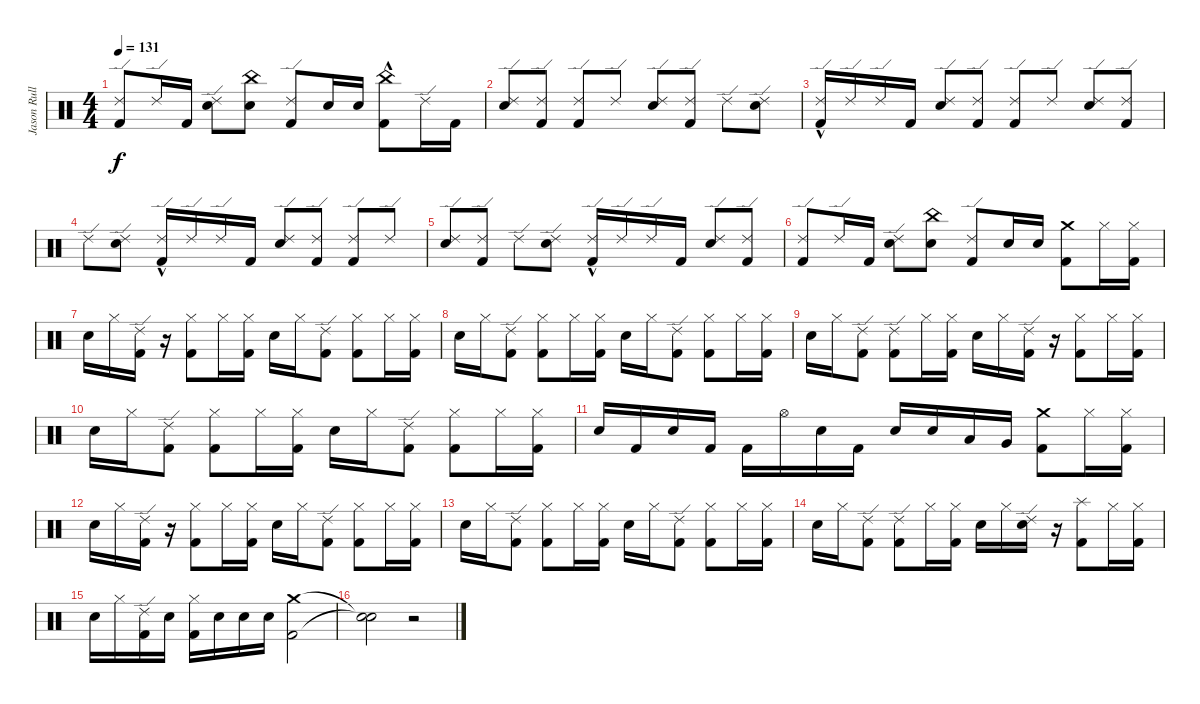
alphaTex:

\track ("Jason Rullo (Drums)" "Jason Rull") {instrument percussion}
\staff {score}
\articulation defaults
\ts (4 4)
\tempo 131
\clef neutral
\ks c
("Kick (hit) 2" "Ride (edge) 2").8{dy f} "Ride (edge) 2".16 "Kick (hit) 2".16 ("Electric Snare (hit)" "Ride (edge) 2").8 ("China (hit)" "Electric Snare (hit)").8 ("Ride (edge) 2" "Kick (hit) 2").8 "Electric Snare (hit)".16 "Electric Snare (hit)".16 ("Kick (hit) 2"{hac} "China (hit)").8 "Ride (edge) 2".16 "Kick (hit) 2".16 |
("Electric Snare (hit)" "Ride (edge) 2").8 ("Kick (hit) 2" "Ride (edge) 2").8 ("Kick (hit) 2" "Ride (edge) 2").8 "Ride (edge) 2".8 ("Electric Snare (hit)" "Ride (edge) 2").8 ("Kick (hit) 2" "Ride (edge) 2").8 "Ride (edge) 2".8 ("Electric Snare (hit)" "Ride (edge) 2").8 |
("Ride (edge) 2" "Kick (hit) 2"{hac}).16 "Ride (edge) 2".16 "Ride (edge) 2".16 "Kick (hit) 2".16 ("Electric Snare (hit)" "Ride (edge) 2").8 ("Kick (hit) 2" "Ride (edge) 2").8 ("Kick (hit) 2" "Ride (edge) 2").8 "Ride (edge) 2".8 ("Electric Snare (hit)" "Ride (edge) 2").8 ("Kick (hit) 2" "Ride (edge) 2").8 |
"Ride (edge) 2".8 ("Electric Snare (hit)" "Ride (edge) 2").8 ("Ride (edge) 2" "Kick (hit) 2"{hac}).16 "Ride (edge) 2".16 "Ride (edge) 2".16 "Kick (hit) 2".16 ("Electric Snare (hit)" "Ride (edge) 2").8 ("Kick (hit) 2" "Ride (edge) 2").8 ("Kick (hit) 2" "Ride (edge) 2").8 "Ride (edge) 2".8 |
("Electric Snare (hit)" "Ride (edge) 2").8 ("Kick (hit) 2" "Ride (edge) 2").8 "Ride (edge) 2".8 ("Electric Snare (hit)" "Ride (edge) 2").8 ("Ride (edge) 2" "Kick (hit) 2"{hac}).16 "Ride (edge) 2".16 "Ride (edge) 2".16 "Kick (hit) 2".16 ("Electric Snare (hit)" "Ride (edge) 2").8 ("Kick (hit) 2" "Ride (edge) 2").8 |
("Kick (hit) 2" "Ride (edge) 2").8 "Ride (edge) 2".16 "Kick (hit) 2".16 ("Electric Snare (hit)" "Ride (edge) 2").8 ("China (hit)" "Electric Snare (hit)").8 ("Ride (edge) 2" "Kick (hit) 2").8 "Electric Snare (hit)".16 "Electric Snare (hit)".16 ("Crash medium (hit)" "Kick (hit) 2").8 "Hi-Hat (closed)".16 ("Hi-Hat (closed)" "Kick (hit) 2").16 |
"Electric Snare (hit)".16 "Hi-Hat (closed)".16 ("Ride (edge) 2" "Kick (hit) 2").16 r.16 ("Hi-Hat (closed)" "Kick (hit) 2").8 "Hi-Hat (closed)".16 ("Hi-Hat (closed)" "Kick (hit) 2").16 "Electric Snare (hit)".16 "Hi-Hat (closed)".16 ("Ride (edge) 2" "Kick (hit) 2").8 ("Hi-Hat (closed)" "Kick (hit) 2").8 "Hi-Hat (closed)".16 ("Hi-Hat (closed)" "Kick (hit) 2").16 |
"Electric Snare (hit)".16 "Hi-Hat (closed)".16 ("Ride (edge) 2" "Kick (hit) 2").8 ("Hi-Hat (closed)" "Kick (hit) 2").8 "Hi-Hat (closed)".16 ("Hi-Hat (closed)" "Kick (hit) 2").16 "Electric Snare (hit)".16 "Hi-Hat (closed)".16 ("Ride (edge) 2" "Kick (hit) 2").8 ("Hi-Hat (closed)" "Kick (hit) 2").8 "Hi-Hat (closed)".16 ("Hi-Hat (closed)" "Kick (hit) 2").16 |
"Electric Snare (hit)".16 "Hi-Hat (closed)".16 ("Ride (edge) 2" "Kick (hit) 2").8 ("Ride (edge) 2" "Kick (hit) 2").8 "Hi-Hat (closed)".16 ("Hi-Hat (closed)" "Kick (hit) 2").16 "Electric Snare (hit)".16 "Hi-Hat (closed)".16 ("Ride (edge) 2" "Kick (hit) 2").16 r.16 ("Hi-Hat (closed)" "Kick (hit) 2").8 "Hi-Hat (closed)".16 ("Hi-Hat (closed)" "Kick (hit) 2").16 |
"Electric Snare (hit)".16 "Hi-Hat (closed)".16 ("Ride (edge) 2" "Kick (hit) 2").8 ("Hi-Hat (closed)" "Kick (hit) 2").8 "Hi-Hat (closed)".16 ("Hi-Hat (closed)" "Kick (hit) 2").16 "Electric Snare (hit)".16 "Hi-Hat (closed)".16 ("Ride (edge) 2" "Kick (hit) 2").8 ("Hi-Hat (closed)" "Kick (hit) 2").8 "Hi-Hat (closed)".16 ("Hi-Hat (closed)" "Kick (hit) 2").16 |
"Electric Snare (hit)".16 "Kick (hit) 2".16 "Electric Snare (hit)".16 "Kick (hit) 2".16 "Kick (hit) 2".16 "Hi-Hat (open)".16 "Electric Snare (hit)".16 "Kick (hit) 2".16 "Electric Snare (hit)".16 "Electric Snare (hit)".16 "Low Tom (hit)".16 "Very Low Tom (hit)".16 ("Crash medium (hit)" "Kick (hit) 2").8 "Hi-Hat (closed)".16 ("Hi-Hat (closed)" "Kick (hit) 2").16 |
"Electric Snare (hit)".16 "Hi-Hat (closed)".16 ("Ride (edge) 2" "Kick (hit) 2").16 r.16 ("Hi-Hat (closed)" "Kick (hit) 2").8 "Hi-Hat (closed)".16 ("Hi-Hat (closed)" "Kick (hit) 2").16 "Electric Snare (hit)".16 "Hi-Hat (closed)".16 ("Ride (edge) 2" "Kick (hit) 2").8 ("Hi-Hat (closed)" "Kick (hit) 2").8 "Hi-Hat (closed)".16 ("Hi-Hat (closed)" "Kick (hit) 2").16 |
"Electric Snare (hit)".16 "Hi-Hat (closed)".16 ("Ride (edge) 2" "Kick (hit) 2").8 ("Hi-Hat (closed)" "Kick (hit) 2").8 "Hi-Hat (closed)".16 ("Hi-Hat (closed)" "Kick (hit) 2").16 "Electric Snare (hit)".16 "Hi-Hat (closed)".16 ("Ride (edge) 2" "Kick (hit) 2").8 ("Hi-Hat (closed)" "Kick (hit) 2").8 "Hi-Hat (closed)".16 ("Hi-Hat (closed)" "Kick (hit) 2").16 |
"Electric Snare (hit)".16 "Hi-Hat (closed)".16 ("Ride (edge) 2" "Kick (hit) 2").8 ("Ride (edge) 2" "Kick (hit) 2").8 "Hi-Hat (closed)".16 ("Hi-Hat (closed)" "Kick (hit) 2").16 "Electric Snare (hit)".16 "Hi-Hat (closed)".16 ("Electric Snare (hit)" "Ride (edge) 2").16 r.16 ("Splash (hit)" "Kick (hit) 2").8 "Hi-Hat (closed)".16 ("Hi-Hat (closed)" "Kick (hit) 2").16 |
"Electric Snare (hit)".16 "Hi-Hat (closed)".16 ("Ride (edge) 2" "Kick (hit) 2").16 "Electric Snare (hit)".16 ("Kick (hit) 2" "Hi-Hat (closed)").16 "Electric Snare (hit)".16 "Electric Snare (hit)".16 "Electric Snare (hit)".16 ("Crash medium (hit)" "Kick (hit) 2").2 |
("Snare (hit)"{t} "Snare (hit)"{t}).2 r.2
